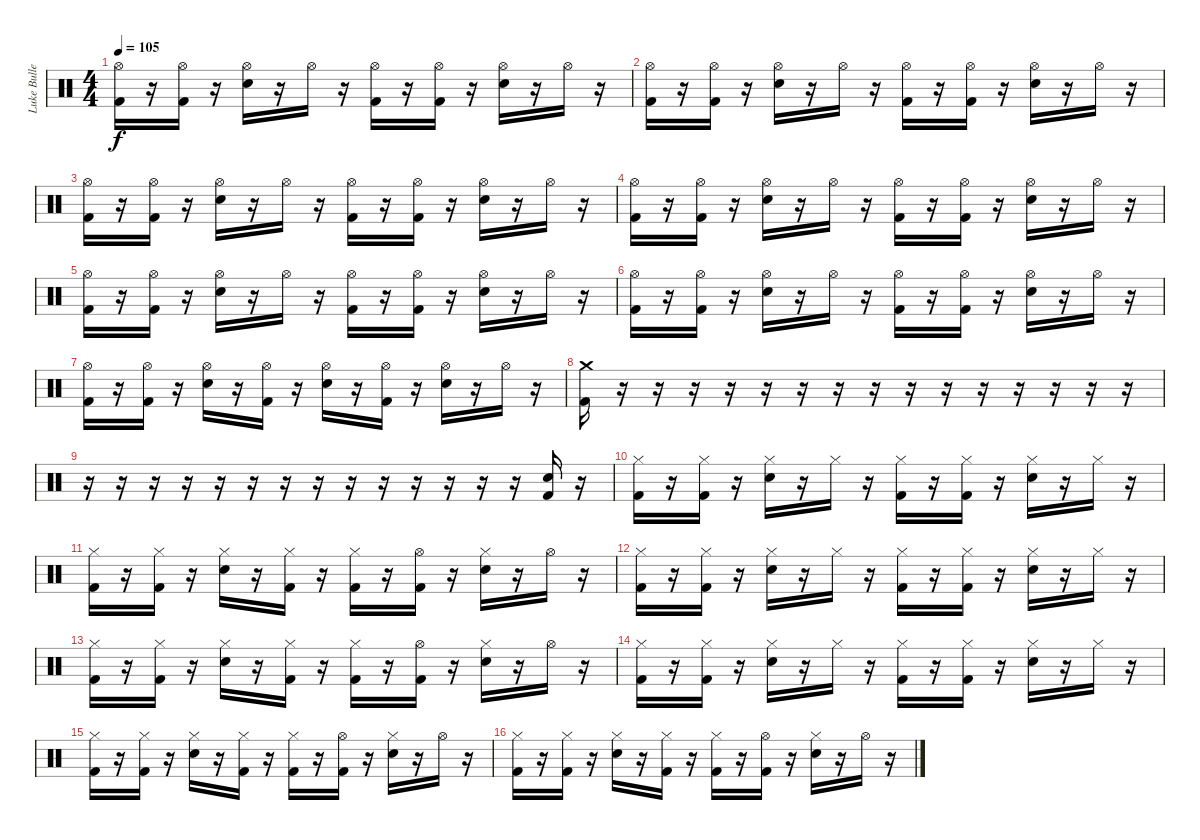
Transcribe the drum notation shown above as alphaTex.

\track ("Luke Bullen" "Luke Bulle") {instrument percussion}
\staff {score}
\articulation defaults
\ts (4 4)
\tempo 105
\clef neutral
\ks c
("Hi-Hat (open)" "Kick (hit) 2").16{dy f} r.16 ("Hi-Hat (open)" "Kick (hit) 2").16 r.16 ("Hi-Hat (open)" "Electric Snare (hit)").16 r.16 "Hi-Hat (open)".16 r.16 ("Hi-Hat (open)" "Kick (hit) 2").16 r.16 ("Hi-Hat (open)" "Kick (hit) 2").16 r.16 ("Hi-Hat (open)" "Electric Snare (hit)").16 r.16 "Hi-Hat (open)".16 r.16 |
("Hi-Hat (open)" "Kick (hit) 2").16 r.16 ("Hi-Hat (open)" "Kick (hit) 2").16 r.16 ("Hi-Hat (open)" "Electric Snare (hit)").16 r.16 "Hi-Hat (open)".16 r.16 ("Hi-Hat (open)" "Kick (hit) 2").16 r.16 ("Hi-Hat (open)" "Kick (hit) 2").16 r.16 ("Hi-Hat (open)" "Electric Snare (hit)").16 r.16 "Hi-Hat (open)".16 r.16 |
("Hi-Hat (open)" "Kick (hit) 2").16 r.16 ("Hi-Hat (open)" "Kick (hit) 2").16 r.16 ("Hi-Hat (open)" "Electric Snare (hit)").16 r.16 "Hi-Hat (open)".16 r.16 ("Hi-Hat (open)" "Kick (hit) 2").16 r.16 ("Hi-Hat (open)" "Kick (hit) 2").16 r.16 ("Hi-Hat (open)" "Electric Snare (hit)").16 r.16 "Hi-Hat (open)".16 r.16 |
("Hi-Hat (open)" "Kick (hit) 2").16 r.16 ("Hi-Hat (open)" "Kick (hit) 2").16 r.16 ("Hi-Hat (open)" "Electric Snare (hit)").16 r.16 "Hi-Hat (open)".16 r.16 ("Hi-Hat (open)" "Kick (hit) 2").16 r.16 ("Hi-Hat (open)" "Kick (hit) 2").16 r.16 ("Hi-Hat (open)" "Electric Snare (hit)").16 r.16 "Hi-Hat (open)".16 r.16 |
("Hi-Hat (open)" "Kick (hit) 2").16 r.16 ("Hi-Hat (open)" "Kick (hit) 2").16 r.16 ("Hi-Hat (open)" "Electric Snare (hit)").16 r.16 "Hi-Hat (open)".16 r.16 ("Hi-Hat (open)" "Kick (hit) 2").16 r.16 ("Hi-Hat (open)" "Kick (hit) 2").16 r.16 ("Hi-Hat (open)" "Electric Snare (hit)").16 r.16 "Hi-Hat (open)".16 r.16 |
("Hi-Hat (open)" "Kick (hit) 2").16 r.16 ("Hi-Hat (open)" "Kick (hit) 2").16 r.16 ("Hi-Hat (open)" "Electric Snare (hit)").16 r.16 "Hi-Hat (open)".16 r.16 ("Hi-Hat (open)" "Kick (hit) 2").16 r.16 ("Hi-Hat (open)" "Kick (hit) 2").16 r.16 ("Hi-Hat (open)" "Electric Snare (hit)").16 r.16 "Hi-Hat (open)".16 r.16 |
("Hi-Hat (open)" "Kick (hit) 2").16 r.16 ("Hi-Hat (open)" "Kick (hit) 2").16 r.16 ("Hi-Hat (open)" "Electric Snare (hit)").16 r.16 ("Hi-Hat (open)" "Kick (hit) 2").16 r.16 ("Hi-Hat (open)" "Electric Snare (hit)").16 r.16 ("Hi-Hat (open)" "Kick (hit) 2").16 r.16 ("Hi-Hat (open)" "Electric Snare (hit)").16 r.16 "Hi-Hat (open)".16 r.16 |
("Crash medium (hit)" "Kick (hit) 2").16 r.16 r.16 r.16 r.16 r.16 r.16 r.16 r.16 r.16 r.16 r.16 r.16 r.16 r.16 r.16 |
r.16 r.16 r.16 r.16 r.16 r.16 r.16 r.16 r.16 r.16 r.16 r.16 r.16 r.16 ("Electric Snare (hit)" "Kick (hit) 2").16 r.16 |
("Hi-Hat (closed)" "Kick (hit) 2").16 r.16 ("Hi-Hat (closed)" "Kick (hit) 2").16 r.16 ("Hi-Hat (closed)" "Electric Snare (hit)").16 r.16 "Hi-Hat (closed)".16 r.16 ("Hi-Hat (closed)" "Kick (hit) 2").16 r.16 ("Hi-Hat (closed)" "Kick (hit) 2").16 r.16 ("Hi-Hat (closed)" "Electric Snare (hit)").16 r.16 "Hi-Hat (closed)".16 r.16 |
("Hi-Hat (closed)" "Kick (hit) 2").16 r.16 ("Hi-Hat (closed)" "Kick (hit) 2").16 r.16 ("Hi-Hat (closed)" "Electric Snare (hit)").16 r.16 ("Hi-Hat (closed)" "Kick (hit) 2").16 r.16 ("Hi-Hat (closed)" "Kick (hit) 2").16 r.16 ("Hi-Hat (open)" "Kick (hit) 2").16 r.16 ("Hi-Hat (closed)" "Electric Snare (hit)").16 r.16 "Hi-Hat (open)".16 r.16 |
("Hi-Hat (closed)" "Kick (hit) 2").16 r.16 ("Hi-Hat (closed)" "Kick (hit) 2").16 r.16 ("Hi-Hat (closed)" "Electric Snare (hit)").16 r.16 "Hi-Hat (closed)".16 r.16 ("Hi-Hat (closed)" "Kick (hit) 2").16 r.16 ("Hi-Hat (closed)" "Kick (hit) 2").16 r.16 ("Hi-Hat (closed)" "Electric Snare (hit)").16 r.16 "Hi-Hat (closed)".16 r.16 |
("Hi-Hat (closed)" "Kick (hit) 2").16 r.16 ("Hi-Hat (closed)" "Kick (hit) 2").16 r.16 ("Hi-Hat (closed)" "Electric Snare (hit)").16 r.16 ("Hi-Hat (closed)" "Kick (hit) 2").16 r.16 ("Hi-Hat (closed)" "Kick (hit) 2").16 r.16 ("Hi-Hat (open)" "Kick (hit) 2").16 r.16 ("Hi-Hat (closed)" "Electric Snare (hit)").16 r.16 "Hi-Hat (open)".16 r.16 |
("Hi-Hat (closed)" "Kick (hit) 2").16 r.16 ("Hi-Hat (closed)" "Kick (hit) 2").16 r.16 ("Hi-Hat (closed)" "Electric Snare (hit)").16 r.16 "Hi-Hat (closed)".16 r.16 ("Hi-Hat (closed)" "Kick (hit) 2").16 r.16 ("Hi-Hat (closed)" "Kick (hit) 2").16 r.16 ("Hi-Hat (closed)" "Electric Snare (hit)").16 r.16 "Hi-Hat (closed)".16 r.16 |
("Hi-Hat (closed)" "Kick (hit) 2").16 r.16 ("Hi-Hat (closed)" "Kick (hit) 2").16 r.16 ("Hi-Hat (closed)" "Electric Snare (hit)").16 r.16 ("Hi-Hat (closed)" "Kick (hit) 2").16 r.16 ("Hi-Hat (closed)" "Kick (hit) 2").16 r.16 ("Hi-Hat (open)" "Kick (hit) 2").16 r.16 ("Hi-Hat (closed)" "Electric Snare (hit)").16 r.16 "Hi-Hat (open)".16 r.16 |
("Hi-Hat (closed)" "Kick (hit) 2").16 r.16 ("Hi-Hat (closed)" "Kick (hit) 2").16 r.16 ("Hi-Hat (closed)" "Electric Snare (hit)").16 r.16 ("Hi-Hat (closed)" "Kick (hit) 2").16 r.16 ("Hi-Hat (closed)" "Kick (hit) 2").16 r.16 ("Hi-Hat (open)" "Kick (hit) 2").16 r.16 ("Hi-Hat (closed)" "Electric Snare (hit)").16 r.16 "Hi-Hat (open)".16 r.16
